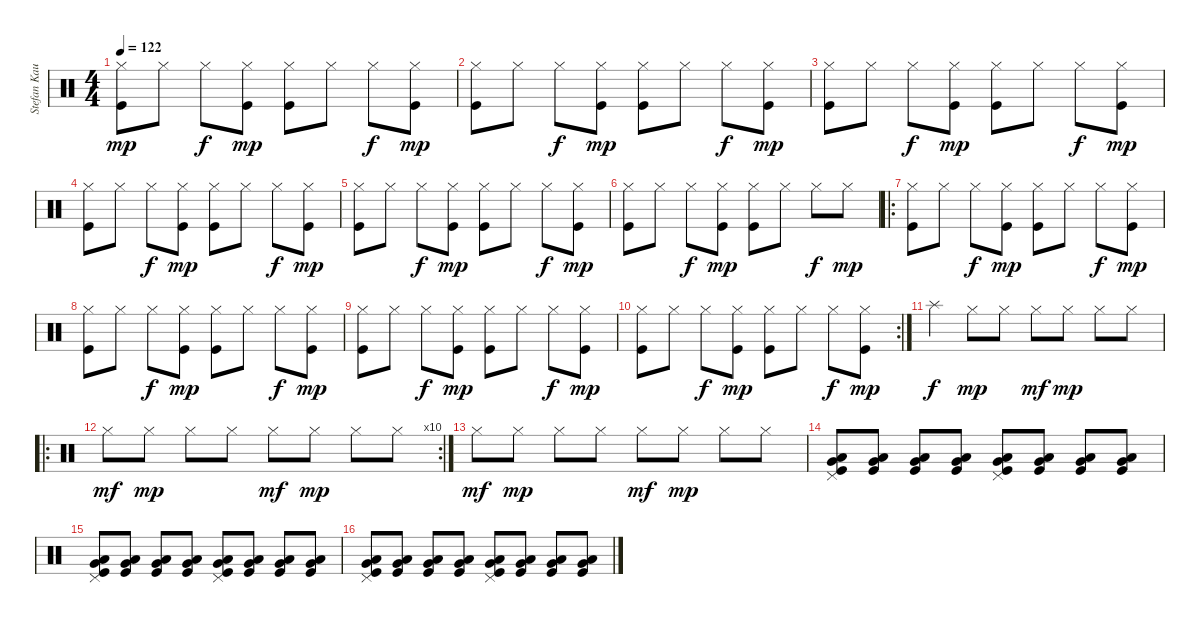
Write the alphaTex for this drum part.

\track ("Stefan Kaufmann" "Stefan Kau") {instrument percussion}
\staff {score}
\articulation defaults
\ts (4 4)
\tempo 122
\clef neutral
\ks c
("Hi-Hat (closed)" "Kick (hit)").8{dy mp} "Hi-Hat (closed)".8 "Hi-Hat (closed)".8{dy f} ("Hi-Hat (closed)" "Kick (hit)").8{dy mp} ("Hi-Hat (closed)" "Kick (hit)").8 "Hi-Hat (closed)".8 "Hi-Hat (closed)".8{dy f} ("Hi-Hat (closed)" "Kick (hit)").8{dy mp} |
("Hi-Hat (closed)" "Kick (hit)").8 "Hi-Hat (closed)".8 "Hi-Hat (closed)".8{dy f} ("Hi-Hat (closed)" "Kick (hit)").8{dy mp} ("Hi-Hat (closed)" "Kick (hit)").8 "Hi-Hat (closed)".8 "Hi-Hat (closed)".8{dy f} ("Hi-Hat (closed)" "Kick (hit)").8{dy mp} |
("Hi-Hat (closed)" "Kick (hit)").8 "Hi-Hat (closed)".8 "Hi-Hat (closed)".8{dy f} ("Hi-Hat (closed)" "Kick (hit)").8{dy mp} ("Hi-Hat (closed)" "Kick (hit)").8 "Hi-Hat (closed)".8 "Hi-Hat (closed)".8{dy f} ("Hi-Hat (closed)" "Kick (hit)").8{dy mp} |
("Hi-Hat (closed)" "Kick (hit)").8 "Hi-Hat (closed)".8 "Hi-Hat (closed)".8{dy f} ("Hi-Hat (closed)" "Kick (hit)").8{dy mp} ("Hi-Hat (closed)" "Kick (hit)").8 "Hi-Hat (closed)".8 "Hi-Hat (closed)".8{dy f} ("Hi-Hat (closed)" "Kick (hit)").8{dy mp} |
("Hi-Hat (closed)" "Kick (hit)").8 "Hi-Hat (closed)".8 "Hi-Hat (closed)".8{dy f} ("Hi-Hat (closed)" "Kick (hit)").8{dy mp} ("Hi-Hat (closed)" "Kick (hit)").8 "Hi-Hat (closed)".8 "Hi-Hat (closed)".8{dy f} ("Hi-Hat (closed)" "Kick (hit)").8{dy mp} |
("Hi-Hat (closed)" "Kick (hit)").8 "Hi-Hat (closed)".8 "Hi-Hat (closed)".8{dy f} ("Hi-Hat (closed)" "Kick (hit)").8{dy mp} ("Hi-Hat (closed)" "Kick (hit)").8 "Hi-Hat (closed)".8 "Hi-Hat (closed)".8{dy f} "Hi-Hat (closed)".8{dy mp} |
\ro
("Hi-Hat (closed)" "Kick (hit)").8 "Hi-Hat (closed)".8 "Hi-Hat (closed)".8{dy f} ("Hi-Hat (closed)" "Kick (hit)").8{dy mp} ("Hi-Hat (closed)" "Kick (hit)").8 "Hi-Hat (closed)".8 "Hi-Hat (closed)".8{dy f} ("Hi-Hat (closed)" "Kick (hit)").8{dy mp} |
("Hi-Hat (closed)" "Kick (hit)").8 "Hi-Hat (closed)".8 "Hi-Hat (closed)".8{dy f} ("Hi-Hat (closed)" "Kick (hit)").8{dy mp} ("Hi-Hat (closed)" "Kick (hit)").8 "Hi-Hat (closed)".8 "Hi-Hat (closed)".8{dy f} ("Hi-Hat (closed)" "Kick (hit)").8{dy mp} |
("Hi-Hat (closed)" "Kick (hit)").8 "Hi-Hat (closed)".8 "Hi-Hat (closed)".8{dy f} ("Hi-Hat (closed)" "Kick (hit)").8{dy mp} ("Hi-Hat (closed)" "Kick (hit)").8 "Hi-Hat (closed)".8 "Hi-Hat (closed)".8{dy f} ("Hi-Hat (closed)" "Kick (hit)").8{dy mp} |
\rc 2
("Hi-Hat (closed)" "Kick (hit)").8 "Hi-Hat (closed)".8 "Hi-Hat (closed)".8{dy f} ("Hi-Hat (closed)" "Kick (hit)").8{dy mp} ("Hi-Hat (closed)" "Kick (hit)").8 "Hi-Hat (closed)".8 "Hi-Hat (closed)".8{dy f} ("Hi-Hat (closed)" "Kick (hit)").8{dy mp} |
"Splash (hit)".4{dy f} "Hi-Hat (closed)".8{dy mp} "Hi-Hat (closed)".8 "Hi-Hat (closed)".8{dy mf} "Hi-Hat (closed)".8{dy mp} "Hi-Hat (closed)".8 "Hi-Hat (closed)".8 |
\ro
\rc 10 "Hi-Hat (closed)".8{dy mf} "Hi-Hat (closed)".8{dy mp} "Hi-Hat (closed)".8 "Hi-Hat (closed)".8 "Hi-Hat (closed)".8{dy mf} "Hi-Hat (closed)".8{dy mp} "Hi-Hat (closed)".8 "Hi-Hat (closed)".8
|
"Hi-Hat (closed)".8{dy mf} "Hi-Hat (closed)".8{dy mp} "Hi-Hat (closed)".8 "Hi-Hat (closed)".8 "Hi-Hat (closed)".8{dy mf} "Hi-Hat (closed)".8{dy mp} "Hi-Hat (closed)".8 "Hi-Hat (closed)".8{volume 8} |
("Pedal Hi-Hat (hit)" "Very Low Tom (hit)" "Kick (hit)" "Low Floor Tom (hit)").8{volume 16} ("Very Low Tom (hit)" "Kick (hit)" "Low Floor Tom (hit)").8 ("Very Low Tom (hit)" "Kick (hit)" "Low Floor Tom (hit)").8 ("Very Low Tom (hit)" "Kick (hit)" "Low Floor Tom (hit)").8 ("Pedal Hi-Hat (hit)" "Very Low Tom (hit)" "Kick (hit)" "Low Floor Tom (hit)").8 ("Very Low Tom (hit)" "Kick (hit)" "Low Floor Tom (hit)").8 ("Very Low Tom (hit)" "Kick (hit)" "Low Floor Tom (hit)").8 ("Very Low Tom (hit)" "Kick (hit)" "Low Floor Tom (hit)").8 |
("Pedal Hi-Hat (hit)" "Very Low Tom (hit)" "Kick (hit)" "Low Floor Tom (hit)").8 ("Very Low Tom (hit)" "Kick (hit)" "Low Floor Tom (hit)").8 ("Very Low Tom (hit)" "Kick (hit)" "Low Floor Tom (hit)").8 ("Very Low Tom (hit)" "Kick (hit)" "Low Floor Tom (hit)").8 ("Pedal Hi-Hat (hit)" "Very Low Tom (hit)" "Kick (hit)" "Low Floor Tom (hit)").8 ("Very Low Tom (hit)" "Kick (hit)" "Low Floor Tom (hit)").8 ("Very Low Tom (hit)" "Kick (hit)" "Low Floor Tom (hit)").8 ("Very Low Tom (hit)" "Kick (hit)" "Low Floor Tom (hit)").8 |
("Pedal Hi-Hat (hit)" "Very Low Tom (hit)" "Kick (hit)" "Low Floor Tom (hit)").8 ("Very Low Tom (hit)" "Kick (hit)" "Low Floor Tom (hit)").8 ("Very Low Tom (hit)" "Kick (hit)" "Low Floor Tom (hit)").8 ("Very Low Tom (hit)" "Kick (hit)" "Low Floor Tom (hit)").8 ("Pedal Hi-Hat (hit)" "Very Low Tom (hit)" "Kick (hit)" "Low Floor Tom (hit)").8 ("Very Low Tom (hit)" "Kick (hit)" "Low Floor Tom (hit)").8 ("Very Low Tom (hit)" "Kick (hit)" "Low Floor Tom (hit)").8 ("Very Low Tom (hit)" "Kick (hit)" "Low Floor Tom (hit)").8
